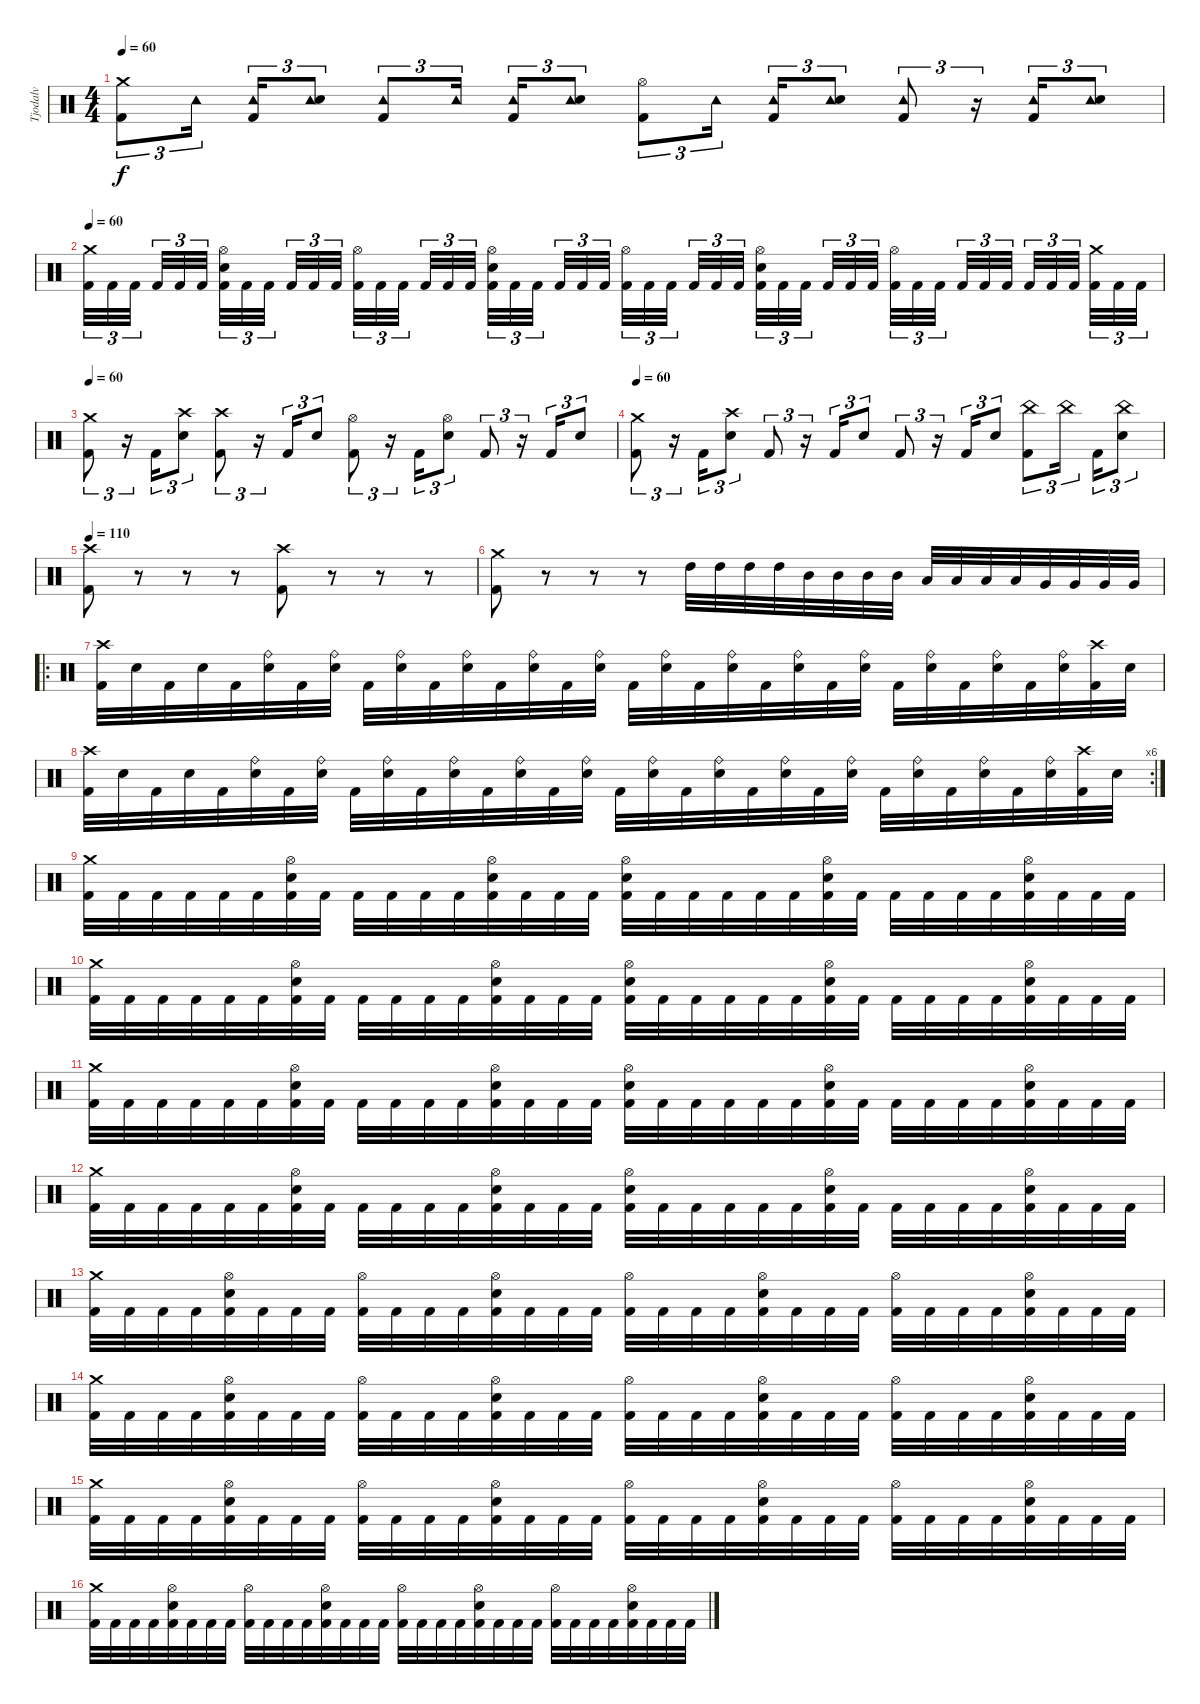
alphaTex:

\track ("Tjodalv" "Tjodalv") {instrument percussion}
\staff {score}
\articulation defaults
\ts (4 4)
\tempo 60
\clef neutral
\ks c
("Crash medium (hit)" "Kick (hit) 2").8{tu (3 2) dy f} "Tambourine (hit)".16{tu (3 2)} ("Tambourine (hit)" "Kick (hit) 2").16{tu (3 2)} ("Tambourine (hit)" "Snare (hit) 2").8{tu (3 2)} ("Kick (hit) 2" "Tambourine (hit)").8{tu (3 2)} "Tambourine (hit)".16{tu (3 2)} ("Tambourine (hit)" "Kick (hit) 2").16{tu (3 2)} ("Tambourine (hit)" "Snare (hit) 2").8{tu (3 2)} ("Hi-Hat (open)" "Kick (hit) 2").8{tu (3 2)} "Tambourine (hit)".16{tu (3 2)} ("Tambourine (hit)" "Kick (hit) 2").16{tu (3 2)} ("Tambourine (hit)" "Snare (hit) 2").8{tu (3 2)} ("Kick (hit) 2" "Tambourine (hit)").8{tu (3 2)} r.16{tu (3 2)} ("Tambourine (hit)" "Kick (hit) 2").16{tu (3 2)} ("Tambourine (hit)" "Snare (hit) 2").8{tu (3 2)} |
\tempo 60
("Kick (hit) 2" "Crash medium (hit)").32{tu (3 2)} "Kick (hit) 2".32{tu (3 2)} "Kick (hit) 2".32{tu (3 2)} "Kick (hit) 2".32{tu (3 2)} "Kick (hit) 2".32{tu (3 2)} "Kick (hit) 2".32{tu (3 2)} ("Hi-Hat (open)" "Kick (hit) 2" "Snare (hit) 2").32{tu (3 2)} "Kick (hit) 2".32{tu (3 2)} "Kick (hit) 2".32{tu (3 2)} "Kick (hit) 2".32{tu (3 2)} "Kick (hit) 2".32{tu (3 2)} "Kick (hit) 2".32{tu (3 2)} ("Kick (hit) 2" "Hi-Hat (open)").32{tu (3 2)} "Kick (hit) 2".32{tu (3 2)} "Kick (hit) 2".32{tu (3 2)} "Kick (hit) 2".32{tu (3 2)} "Kick (hit) 2".32{tu (3 2)} "Kick (hit) 2".32{tu (3 2)} ("Hi-Hat (open)" "Kick (hit) 2" "Snare (hit) 2").32{tu (3 2)} "Kick (hit) 2".32{tu (3 2)} "Kick (hit) 2".32{tu (3 2)} "Kick (hit) 2".32{tu (3 2)} "Kick (hit) 2".32{tu (3 2)} "Kick (hit) 2".32{tu (3 2)} ("Hi-Hat (open)" "Kick (hit) 2").32{tu (3 2)} "Kick (hit) 2".32{tu (3 2)} "Kick (hit) 2".32{tu (3 2)} "Kick (hit) 2".32{tu (3 2)} "Kick (hit) 2".32{tu (3 2)} "Kick (hit) 2".32{tu (3 2)} ("Hi-Hat (open)" "Kick (hit) 2" "Snare (hit) 2").32{tu (3 2)} "Kick (hit) 2".32{tu (3 2)} "Kick (hit) 2".32{tu (3 2)} "Kick (hit) 2".32{tu (3 2)} "Kick (hit) 2".32{tu (3 2)} "Kick (hit) 2".32{tu (3 2)} ("Kick (hit) 2" "Hi-Hat (open)").32{tu (3 2)} "Kick (hit) 2".32{tu (3 2)} "Kick (hit) 2".32{tu (3 2)} "Kick (hit) 2".32{tu (3 2)} "Kick (hit) 2".32{tu (3 2)} "Kick (hit) 2".32{tu (3 2)} "Kick (hit) 2".32{tu (3 2)} "Kick (hit) 2".32{tu (3 2)} "Kick (hit) 2".32{tu (3 2)} ("Crash medium (hit)" "Kick (hit) 2").32{tu (3 2)} "Kick (hit) 2".32{tu (3 2)} "Kick (hit) 2".32{tu (3 2)} |
\tempo 60
("Crash medium (hit)" "Kick (hit) 2").8{tu (3 2)} r.16{tu (3 2)} "Kick (hit) 2".16{tu (3 2)} ("Crash high (hit)" "Snare (hit) 2").8{tu (3 2)} ("Crash high (hit)" "Kick (hit) 2").8{tu (3 2)} r.16{tu (3 2)} "Kick (hit) 2".16{tu (3 2)} "Snare (hit) 2".8{tu (3 2)} ("Hi-Hat (open)" "Kick (hit) 2").8{tu (3 2)} r.16{tu (3 2)} "Kick (hit) 2".16{tu (3 2)} ("Hi-Hat (open)" "Snare (hit) 2").8{tu (3 2)} "Kick (hit) 2".8{tu (3 2)} r.16{tu (3 2)} "Kick (hit) 2".16{tu (3 2)} "Snare (hit) 2".8{tu (3 2)} |
\tempo 60
("Crash medium (hit)" "Kick (hit) 2").8{tu (3 2)} r.16{tu (3 2)} "Kick (hit) 2".16{tu (3 2)} ("Crash high (hit)" "Snare (hit) 2").8{tu (3 2)} "Kick (hit) 2".8{tu (3 2)} r.16{tu (3 2)} "Kick (hit) 2".16{tu (3 2)} "Snare (hit) 2".8{tu (3 2)} "Kick (hit) 2".8{tu (3 2)} r.16{tu (3 2)} "Kick (hit) 2".16{tu (3 2)} "Snare (hit) 2".8{tu (3 2)} ("Kick (hit) 2" "China (hit)").8{tu (3 2)} "China (hit)".16{tu (3 2)} "Kick (hit) 2".16{tu (3 2)} ("China (hit)" "Snare (hit) 2").8{tu (3 2)} |
\tempo 110
("Kick (hit) 2" "Crash high (hit)").8 r.8 r.8 r.8 ("Kick (hit) 2" "Crash high (hit)").8 r.8 r.8 r.8 |
("Kick (hit) 2" "Crash medium (hit)").8 r.8 r.8 r.8 "High Tom (hit)".32 "High Tom (hit)".32 "High Tom (hit)".32 "High Tom (hit)".32 "Mid Tom (hit)".32 "Mid Tom (hit)".32 "Mid Tom (hit)".32 "Mid Tom (hit)".32 "Low Tom (hit)".32 "Low Tom (hit)".32 "Low Tom (hit)".32 "Low Tom (hit)".32 "Very Low Tom (hit)".32 "Very Low Tom (hit)".32 "Very Low Tom (hit)".32 "Very Low Tom (hit)".32 |
\ro
("Kick (hit) 2" "Crash high (hit)").32 "Snare (hit) 2".32 "Kick (hit) 2".32 "Snare (hit) 2".32 "Kick (hit) 2".32 ("Snare (hit) 2" "Ride (bell)").32 "Kick (hit) 2".32 ("Snare (hit) 2" "Ride (bell)").32 "Kick (hit) 2".32 ("Snare (hit) 2" "Ride (bell)").32 "Kick (hit) 2".32 ("Snare (hit) 2" "Ride (bell)").32 "Kick (hit) 2".32 ("Snare (hit) 2" "Ride (bell)").32 "Kick (hit) 2".32 ("Snare (hit) 2" "Ride (bell)").32 "Kick (hit) 2".32 ("Snare (hit) 2" "Ride (bell)").32 "Kick (hit) 2".32 ("Snare (hit) 2" "Ride (bell)").32 "Kick (hit) 2".32 ("Snare (hit) 2" "Ride (bell)").32 "Kick (hit) 2".32 ("Snare (hit) 2" "Ride (bell)").32 "Kick (hit) 2".32 ("Snare (hit) 2" "Ride (bell)").32 "Kick (hit) 2".32 ("Snare (hit) 2" "Ride (bell)").32 "Kick (hit) 2".32 ("Snare (hit) 2" "Ride (bell)").32 ("Kick (hit) 2" "Crash high (hit)").32 "Snare (hit) 2".32 |
\rc 6
("Kick (hit) 2" "Crash high (hit)").32 "Snare (hit) 2".32 "Kick (hit) 2".32 "Snare (hit) 2".32 "Kick (hit) 2".32 ("Snare (hit) 2" "Ride (bell)").32 "Kick (hit) 2".32 ("Snare (hit) 2" "Ride (bell)").32 "Kick (hit) 2".32 ("Snare (hit) 2" "Ride (bell)").32 "Kick (hit) 2".32 ("Snare (hit) 2" "Ride (bell)").32 "Kick (hit) 2".32 ("Snare (hit) 2" "Ride (bell)").32 "Kick (hit) 2".32 ("Snare (hit) 2" "Ride (bell)").32 "Kick (hit) 2".32 ("Snare (hit) 2" "Ride (bell)").32 "Kick (hit) 2".32 ("Snare (hit) 2" "Ride (bell)").32 "Kick (hit) 2".32 ("Snare (hit) 2" "Ride (bell)").32 "Kick (hit) 2".32 ("Snare (hit) 2" "Ride (bell)").32 "Kick (hit) 2".32 ("Snare (hit) 2" "Ride (bell)").32 "Kick (hit) 2".32 ("Snare (hit) 2" "Ride (bell)").32 "Kick (hit) 2".32 ("Snare (hit) 2" "Ride (bell)").32 ("Kick (hit) 2" "Crash high (hit)").32 "Snare (hit) 2".32 |
("Kick (hit) 2" "Crash medium (hit)").32 "Kick (hit) 2".32 "Kick (hit) 2".32 "Kick (hit) 2".32 "Kick (hit) 2".32 "Kick (hit) 2".32 ("Kick (hit) 2" "Snare (hit) 2" "Hi-Hat (open)").32 "Kick (hit) 2".32 "Kick (hit) 2".32 "Kick (hit) 2".32 "Kick (hit) 2".32 "Kick (hit) 2".32 ("Kick (hit) 2" "Snare (hit) 2" "Hi-Hat (open)").32 "Kick (hit) 2".32 "Kick (hit) 2".32 "Kick (hit) 2".32 ("Kick (hit) 2" "Snare (hit) 2" "Hi-Hat (open)").32 "Kick (hit) 2".32 "Kick (hit) 2".32 "Kick (hit) 2".32 "Kick (hit) 2".32 "Kick (hit) 2".32 ("Kick (hit) 2" "Snare (hit) 2" "Hi-Hat (open)").32 "Kick (hit) 2".32 "Kick (hit) 2".32 "Kick (hit) 2".32 "Kick (hit) 2".32 "Kick (hit) 2".32 ("Kick (hit) 2" "Snare (hit) 2" "Hi-Hat (open)").32 "Kick (hit) 2".32 "Kick (hit) 2".32 "Kick (hit) 2".32 |
("Kick (hit) 2" "Crash medium (hit)").32 "Kick (hit) 2".32 "Kick (hit) 2".32 "Kick (hit) 2".32 "Kick (hit) 2".32 "Kick (hit) 2".32 ("Kick (hit) 2" "Snare (hit) 2" "Hi-Hat (open)").32 "Kick (hit) 2".32 "Kick (hit) 2".32 "Kick (hit) 2".32 "Kick (hit) 2".32 "Kick (hit) 2".32 ("Kick (hit) 2" "Snare (hit) 2" "Hi-Hat (open)").32 "Kick (hit) 2".32 "Kick (hit) 2".32 "Kick (hit) 2".32 ("Kick (hit) 2" "Snare (hit) 2" "Hi-Hat (open)").32 "Kick (hit) 2".32 "Kick (hit) 2".32 "Kick (hit) 2".32 "Kick (hit) 2".32 "Kick (hit) 2".32 ("Kick (hit) 2" "Snare (hit) 2" "Hi-Hat (open)").32 "Kick (hit) 2".32 "Kick (hit) 2".32 "Kick (hit) 2".32 "Kick (hit) 2".32 "Kick (hit) 2".32 ("Kick (hit) 2" "Snare (hit) 2" "Hi-Hat (open)").32 "Kick (hit) 2".32 "Kick (hit) 2".32 "Kick (hit) 2".32 |
("Kick (hit) 2" "Crash medium (hit)").32 "Kick (hit) 2".32 "Kick (hit) 2".32 "Kick (hit) 2".32 "Kick (hit) 2".32 "Kick (hit) 2".32 ("Kick (hit) 2" "Snare (hit) 2" "Hi-Hat (open)").32 "Kick (hit) 2".32 "Kick (hit) 2".32 "Kick (hit) 2".32 "Kick (hit) 2".32 "Kick (hit) 2".32 ("Kick (hit) 2" "Snare (hit) 2" "Hi-Hat (open)").32 "Kick (hit) 2".32 "Kick (hit) 2".32 "Kick (hit) 2".32 ("Kick (hit) 2" "Snare (hit) 2" "Hi-Hat (open)").32 "Kick (hit) 2".32 "Kick (hit) 2".32 "Kick (hit) 2".32 "Kick (hit) 2".32 "Kick (hit) 2".32 ("Kick (hit) 2" "Snare (hit) 2" "Hi-Hat (open)").32 "Kick (hit) 2".32 "Kick (hit) 2".32 "Kick (hit) 2".32 "Kick (hit) 2".32 "Kick (hit) 2".32 ("Kick (hit) 2" "Snare (hit) 2" "Hi-Hat (open)").32 "Kick (hit) 2".32 "Kick (hit) 2".32 "Kick (hit) 2".32 |
("Kick (hit) 2" "Crash medium (hit)").32 "Kick (hit) 2".32 "Kick (hit) 2".32 "Kick (hit) 2".32 "Kick (hit) 2".32 "Kick (hit) 2".32 ("Kick (hit) 2" "Snare (hit) 2" "Hi-Hat (open)").32 "Kick (hit) 2".32 "Kick (hit) 2".32 "Kick (hit) 2".32 "Kick (hit) 2".32 "Kick (hit) 2".32 ("Kick (hit) 2" "Snare (hit) 2" "Hi-Hat (open)").32 "Kick (hit) 2".32 "Kick (hit) 2".32 "Kick (hit) 2".32 ("Kick (hit) 2" "Snare (hit) 2" "Hi-Hat (open)").32 "Kick (hit) 2".32 "Kick (hit) 2".32 "Kick (hit) 2".32 "Kick (hit) 2".32 "Kick (hit) 2".32 ("Kick (hit) 2" "Snare (hit) 2" "Hi-Hat (open)").32 "Kick (hit) 2".32 "Kick (hit) 2".32 "Kick (hit) 2".32 "Kick (hit) 2".32 "Kick (hit) 2".32 ("Kick (hit) 2" "Snare (hit) 2" "Hi-Hat (open)").32 "Kick (hit) 2".32 "Kick (hit) 2".32 "Kick (hit) 2".32 |
("Kick (hit) 2" "Crash medium (hit)").32 "Kick (hit) 2".32 "Kick (hit) 2".32 "Kick (hit) 2".32 ("Kick (hit) 2" "Hi-Hat (open)" "Snare (hit) 2").32 "Kick (hit) 2".32 "Kick (hit) 2".32 "Kick (hit) 2".32 ("Kick (hit) 2" "Hi-Hat (open)").32 "Kick (hit) 2".32 "Kick (hit) 2".32 "Kick (hit) 2".32 ("Hi-Hat (open)" "Kick (hit) 2" "Snare (hit) 2").32 "Kick (hit) 2".32 "Kick (hit) 2".32 "Kick (hit) 2".32 ("Kick (hit) 2" "Hi-Hat (open)").32 "Kick (hit) 2".32 "Kick (hit) 2".32 "Kick (hit) 2".32 ("Kick (hit) 2" "Hi-Hat (open)" "Snare (hit) 2").32 "Kick (hit) 2".32 "Kick (hit) 2".32 "Kick (hit) 2".32 ("Kick (hit) 2" "Hi-Hat (open)").32 "Kick (hit) 2".32 "Kick (hit) 2".32 "Kick (hit) 2".32 ("Kick (hit) 2" "Hi-Hat (open)" "Snare (hit) 2").32 "Kick (hit) 2".32 "Kick (hit) 2".32 "Kick (hit) 2".32 |
("Kick (hit) 2" "Crash medium (hit)").32 "Kick (hit) 2".32 "Kick (hit) 2".32 "Kick (hit) 2".32 ("Kick (hit) 2" "Hi-Hat (open)" "Snare (hit) 2").32 "Kick (hit) 2".32 "Kick (hit) 2".32 "Kick (hit) 2".32 ("Kick (hit) 2" "Hi-Hat (open)").32 "Kick (hit) 2".32 "Kick (hit) 2".32 "Kick (hit) 2".32 ("Hi-Hat (open)" "Kick (hit) 2" "Snare (hit) 2").32 "Kick (hit) 2".32 "Kick (hit) 2".32 "Kick (hit) 2".32 ("Kick (hit) 2" "Hi-Hat (open)").32 "Kick (hit) 2".32 "Kick (hit) 2".32 "Kick (hit) 2".32 ("Kick (hit) 2" "Hi-Hat (open)" "Snare (hit) 2").32 "Kick (hit) 2".32 "Kick (hit) 2".32 "Kick (hit) 2".32 ("Kick (hit) 2" "Hi-Hat (open)").32 "Kick (hit) 2".32 "Kick (hit) 2".32 "Kick (hit) 2".32 ("Kick (hit) 2" "Hi-Hat (open)" "Snare (hit) 2").32 "Kick (hit) 2".32 "Kick (hit) 2".32 "Kick (hit) 2".32 |
("Kick (hit) 2" "Crash medium (hit)").32 "Kick (hit) 2".32 "Kick (hit) 2".32 "Kick (hit) 2".32 ("Kick (hit) 2" "Hi-Hat (open)" "Snare (hit) 2").32 "Kick (hit) 2".32 "Kick (hit) 2".32 "Kick (hit) 2".32 ("Kick (hit) 2" "Hi-Hat (open)").32 "Kick (hit) 2".32 "Kick (hit) 2".32 "Kick (hit) 2".32 ("Hi-Hat (open)" "Kick (hit) 2" "Snare (hit) 2").32 "Kick (hit) 2".32 "Kick (hit) 2".32 "Kick (hit) 2".32 ("Kick (hit) 2" "Hi-Hat (open)").32 "Kick (hit) 2".32 "Kick (hit) 2".32 "Kick (hit) 2".32 ("Kick (hit) 2" "Hi-Hat (open)" "Snare (hit) 2").32 "Kick (hit) 2".32 "Kick (hit) 2".32 "Kick (hit) 2".32 ("Kick (hit) 2" "Hi-Hat (open)").32 "Kick (hit) 2".32 "Kick (hit) 2".32 "Kick (hit) 2".32 ("Kick (hit) 2" "Hi-Hat (open)" "Snare (hit) 2").32 "Kick (hit) 2".32 "Kick (hit) 2".32 "Kick (hit) 2".32 |
("Kick (hit) 2" "Crash medium (hit)").32 "Kick (hit) 2".32 "Kick (hit) 2".32 "Kick (hit) 2".32 ("Kick (hit) 2" "Hi-Hat (open)" "Snare (hit) 2").32 "Kick (hit) 2".32 "Kick (hit) 2".32 "Kick (hit) 2".32 ("Kick (hit) 2" "Hi-Hat (open)").32 "Kick (hit) 2".32 "Kick (hit) 2".32 "Kick (hit) 2".32 ("Hi-Hat (open)" "Kick (hit) 2" "Snare (hit) 2").32 "Kick (hit) 2".32 "Kick (hit) 2".32 "Kick (hit) 2".32 ("Kick (hit) 2" "Hi-Hat (open)").32 "Kick (hit) 2".32 "Kick (hit) 2".32 "Kick (hit) 2".32 ("Kick (hit) 2" "Hi-Hat (open)" "Snare (hit) 2").32 "Kick (hit) 2".32 "Kick (hit) 2".32 "Kick (hit) 2".32 ("Kick (hit) 2" "Hi-Hat (open)").32 "Kick (hit) 2".32 "Kick (hit) 2".32 "Kick (hit) 2".32 ("Kick (hit) 2" "Hi-Hat (open)" "Snare (hit) 2").32 "Kick (hit) 2".32 "Kick (hit) 2".32 "Kick (hit) 2".32
